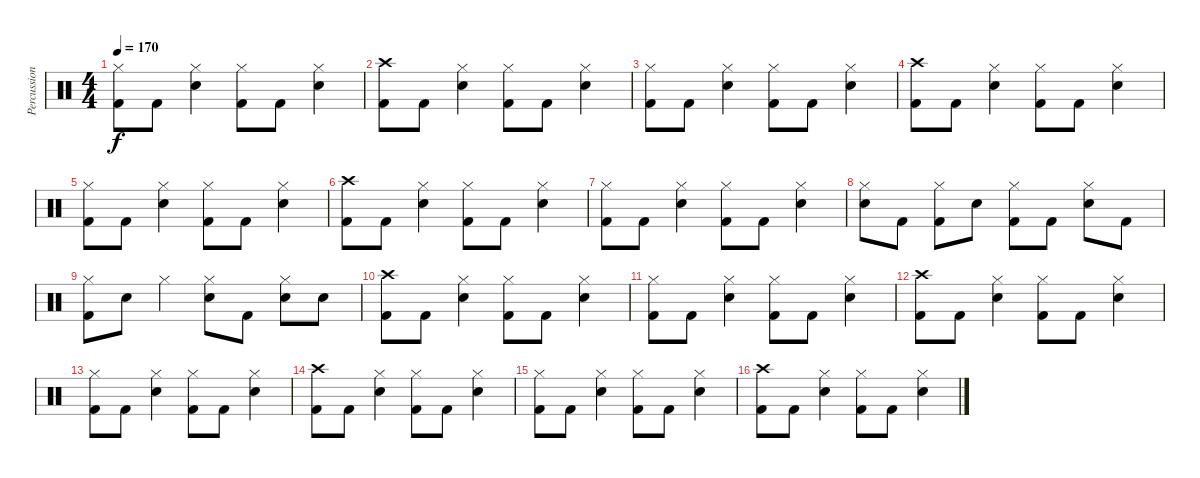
\track ("Percussion" "Percussion") {instrument percussion}
\staff {score}
\articulation defaults
\ts (4 4)
\tempo 170
\clef neutral
\ks c
("Hi-Hat (closed)" "Kick (hit) 2").8{dy f} "Kick (hit) 2".8 ("Hi-Hat (closed)" "Electric Snare (hit)").4 ("Hi-Hat (closed)" "Kick (hit) 2").8 "Kick (hit) 2".8 ("Hi-Hat (closed)" "Electric Snare (hit)").4 |
("Crash high (hit)" "Kick (hit) 2").8 "Kick (hit) 2".8 ("Hi-Hat (closed)" "Electric Snare (hit)").4 ("Hi-Hat (closed)" "Kick (hit) 2").8 "Kick (hit) 2".8 ("Hi-Hat (closed)" "Electric Snare (hit)").4 |
("Hi-Hat (closed)" "Kick (hit) 2").8 "Kick (hit) 2".8 ("Hi-Hat (closed)" "Electric Snare (hit)").4 ("Hi-Hat (closed)" "Kick (hit) 2").8 "Kick (hit) 2".8 ("Hi-Hat (closed)" "Electric Snare (hit)").4 |
("Crash high (hit)" "Kick (hit) 2").8 "Kick (hit) 2".8 ("Hi-Hat (closed)" "Electric Snare (hit)").4 ("Hi-Hat (closed)" "Kick (hit) 2").8 "Kick (hit) 2".8 ("Hi-Hat (closed)" "Electric Snare (hit)").4 |
("Hi-Hat (closed)" "Kick (hit) 2").8 "Kick (hit) 2".8 ("Hi-Hat (closed)" "Electric Snare (hit)").4 ("Hi-Hat (closed)" "Kick (hit) 2").8 "Kick (hit) 2".8 ("Hi-Hat (closed)" "Electric Snare (hit)").4 |
("Crash high (hit)" "Kick (hit) 2").8 "Kick (hit) 2".8 ("Hi-Hat (closed)" "Electric Snare (hit)").4 ("Hi-Hat (closed)" "Kick (hit) 2").8 "Kick (hit) 2".8 ("Hi-Hat (closed)" "Electric Snare (hit)").4 |
("Hi-Hat (closed)" "Kick (hit) 2").8 "Kick (hit) 2".8 ("Hi-Hat (closed)" "Electric Snare (hit)").4 ("Hi-Hat (closed)" "Kick (hit) 2").8 "Kick (hit) 2".8 ("Hi-Hat (closed)" "Electric Snare (hit)").4 |
("Hi-Hat (closed)" "Electric Snare (hit)").8 "Kick (hit) 2".8 ("Hi-Hat (closed)" "Kick (hit) 2").8 "Electric Snare (hit)".8 ("Hi-Hat (closed)" "Kick (hit) 2").8 "Kick (hit) 2".8 ("Hi-Hat (closed)" "Electric Snare (hit)").8 "Kick (hit) 2".8 |
("Hi-Hat (closed)" "Kick (hit) 2").8 "Electric Snare (hit)".8 "Hi-Hat (closed)".4 ("Hi-Hat (closed)" "Electric Snare (hit)").8 "Kick (hit) 2".8 ("Hi-Hat (closed)" "Electric Snare (hit)").8 "Electric Snare (hit)".8 |
("Crash high (hit)" "Kick (hit) 2").8 "Kick (hit) 2".8 ("Hi-Hat (closed)" "Electric Snare (hit)").4 ("Hi-Hat (closed)" "Kick (hit) 2").8 "Kick (hit) 2".8 ("Hi-Hat (closed)" "Electric Snare (hit)").4 |
("Hi-Hat (closed)" "Kick (hit) 2").8 "Kick (hit) 2".8 ("Hi-Hat (closed)" "Electric Snare (hit)").4 ("Hi-Hat (closed)" "Kick (hit) 2").8 "Kick (hit) 2".8 ("Hi-Hat (closed)" "Electric Snare (hit)").4 |
("Crash high (hit)" "Kick (hit) 2").8 "Kick (hit) 2".8 ("Hi-Hat (closed)" "Electric Snare (hit)").4 ("Hi-Hat (closed)" "Kick (hit) 2").8 "Kick (hit) 2".8 ("Hi-Hat (closed)" "Electric Snare (hit)").4 |
("Hi-Hat (closed)" "Kick (hit) 2").8 "Kick (hit) 2".8 ("Hi-Hat (closed)" "Electric Snare (hit)").4 ("Hi-Hat (closed)" "Kick (hit) 2").8 "Kick (hit) 2".8 ("Hi-Hat (closed)" "Electric Snare (hit)").4 |
("Crash high (hit)" "Kick (hit) 2").8 "Kick (hit) 2".8 ("Hi-Hat (closed)" "Electric Snare (hit)").4 ("Hi-Hat (closed)" "Kick (hit) 2").8 "Kick (hit) 2".8 ("Hi-Hat (closed)" "Electric Snare (hit)").4 |
("Hi-Hat (closed)" "Kick (hit) 2").8 "Kick (hit) 2".8 ("Hi-Hat (closed)" "Electric Snare (hit)").4 ("Hi-Hat (closed)" "Kick (hit) 2").8 "Kick (hit) 2".8 ("Hi-Hat (closed)" "Electric Snare (hit)").4 |
("Crash high (hit)" "Kick (hit) 2").8 "Kick (hit) 2".8 ("Hi-Hat (closed)" "Electric Snare (hit)").4 ("Hi-Hat (closed)" "Kick (hit) 2").8 "Kick (hit) 2".8 ("Hi-Hat (closed)" "Electric Snare (hit)").4
